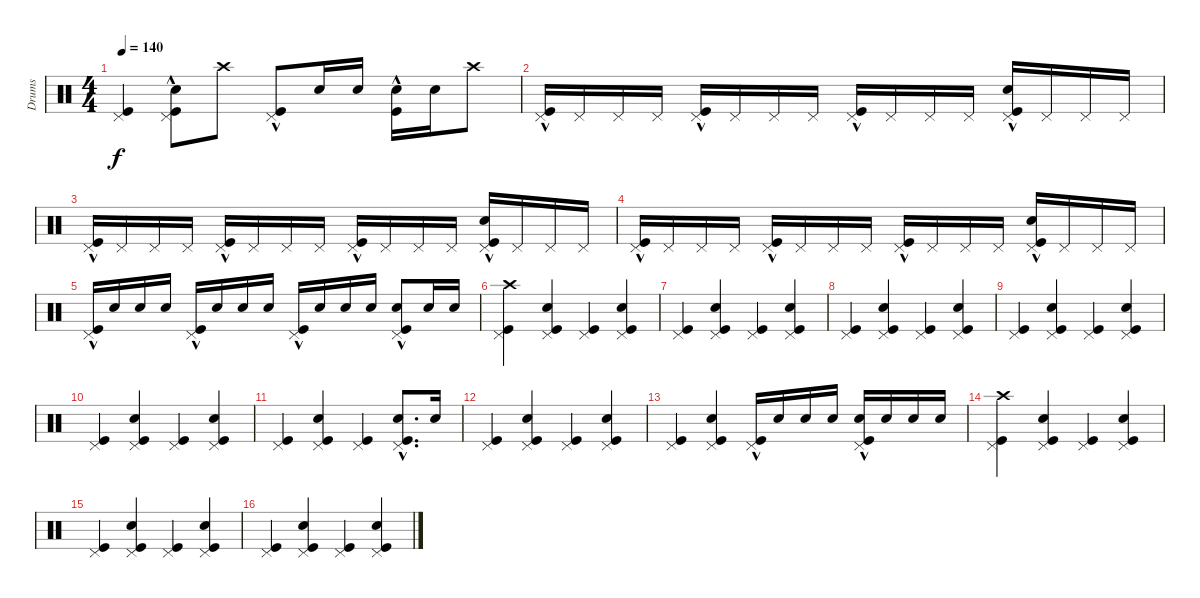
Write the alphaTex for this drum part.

\track ("Drums" "Drums") {instrument percussion}
\staff {score}
\articulation defaults
\ts (4 4)
\tempo 140
\clef neutral
\ks c
("Kick (hit)" "Pedal Hi-Hat (hit)").4{dy f} ("Kick (hit)"{hac} "Snare (hit) 2" "Pedal Hi-Hat (hit)").8 "Crash high (hit)".8 ("Kick (hit)"{hac} "Pedal Hi-Hat (hit)").8 "Snare (hit) 2".16 "Snare (hit) 2".16 ("Kick (hit)"{hac} "Snare (hit) 2").16 "Snare (hit) 2".16 "Crash high (hit)".8 |
("Kick (hit)"{hac} "Pedal Hi-Hat (hit)").16 "Pedal Hi-Hat (hit)".16 "Pedal Hi-Hat (hit)".16 "Pedal Hi-Hat (hit)".16 ("Kick (hit)"{hac} "Pedal Hi-Hat (hit)").16 "Pedal Hi-Hat (hit)".16 "Pedal Hi-Hat (hit)".16 "Pedal Hi-Hat (hit)".16 ("Kick (hit)"{hac} "Pedal Hi-Hat (hit)").16 "Pedal Hi-Hat (hit)".16 "Pedal Hi-Hat (hit)".16 "Pedal Hi-Hat (hit)".16 ("Kick (hit)"{hac} "Pedal Hi-Hat (hit)" "Snare (hit) 2").16 "Pedal Hi-Hat (hit)".16 "Pedal Hi-Hat (hit)".16 "Pedal Hi-Hat (hit)".16 |
("Kick (hit)"{hac} "Pedal Hi-Hat (hit)").16 "Pedal Hi-Hat (hit)".16 "Pedal Hi-Hat (hit)".16 "Pedal Hi-Hat (hit)".16 ("Kick (hit)"{hac} "Pedal Hi-Hat (hit)").16 "Pedal Hi-Hat (hit)".16 "Pedal Hi-Hat (hit)".16 "Pedal Hi-Hat (hit)".16 ("Kick (hit)"{hac} "Pedal Hi-Hat (hit)").16 "Pedal Hi-Hat (hit)".16 "Pedal Hi-Hat (hit)".16 "Pedal Hi-Hat (hit)".16 ("Kick (hit)"{hac} "Pedal Hi-Hat (hit)" "Snare (hit) 2").16 "Pedal Hi-Hat (hit)".16 "Pedal Hi-Hat (hit)".16 "Pedal Hi-Hat (hit)".16 |
("Kick (hit)"{hac} "Pedal Hi-Hat (hit)").16 "Pedal Hi-Hat (hit)".16 "Pedal Hi-Hat (hit)".16 "Pedal Hi-Hat (hit)".16 ("Kick (hit)"{hac} "Pedal Hi-Hat (hit)").16 "Pedal Hi-Hat (hit)".16 "Pedal Hi-Hat (hit)".16 "Pedal Hi-Hat (hit)".16 ("Kick (hit)"{hac} "Pedal Hi-Hat (hit)").16 "Pedal Hi-Hat (hit)".16 "Pedal Hi-Hat (hit)".16 "Pedal Hi-Hat (hit)".16 ("Kick (hit)"{hac} "Pedal Hi-Hat (hit)" "Snare (hit) 2").16 "Pedal Hi-Hat (hit)".16 "Pedal Hi-Hat (hit)".16 "Pedal Hi-Hat (hit)".16 |
("Kick (hit)"{hac} "Pedal Hi-Hat (hit)").16 "Snare (hit) 2".16 "Snare (hit) 2".16 "Snare (hit) 2".16 ("Kick (hit)"{hac} "Pedal Hi-Hat (hit)").16 "Snare (hit) 2".16 "Snare (hit) 2".16 "Snare (hit) 2".16 ("Kick (hit)"{hac} "Pedal Hi-Hat (hit)").16 "Snare (hit) 2".16 "Snare (hit) 2".16 "Snare (hit) 2".16 ("Kick (hit)"{hac} "Snare (hit) 2" "Pedal Hi-Hat (hit)").8 "Snare (hit) 2".16 "Snare (hit) 2".16 |
("Kick (hit)" "Crash high (hit)" "Pedal Hi-Hat (hit)").4 ("Kick (hit)" "Pedal Hi-Hat (hit)" "Snare (hit) 2").4 ("Kick (hit)" "Pedal Hi-Hat (hit)").4 ("Kick (hit)" "Pedal Hi-Hat (hit)" "Snare (hit) 2").4 |
("Kick (hit)" "Pedal Hi-Hat (hit)").4 ("Kick (hit)" "Pedal Hi-Hat (hit)" "Snare (hit) 2").4 ("Kick (hit)" "Pedal Hi-Hat (hit)").4 ("Kick (hit)" "Pedal Hi-Hat (hit)" "Snare (hit) 2").4 |
("Kick (hit)" "Pedal Hi-Hat (hit)").4 ("Kick (hit)" "Pedal Hi-Hat (hit)" "Snare (hit) 2").4 ("Kick (hit)" "Pedal Hi-Hat (hit)").4 ("Kick (hit)" "Pedal Hi-Hat (hit)" "Snare (hit) 2").4 |
("Kick (hit)" "Pedal Hi-Hat (hit)").4 ("Kick (hit)" "Pedal Hi-Hat (hit)" "Snare (hit) 2").4 ("Kick (hit)" "Pedal Hi-Hat (hit)").4 ("Kick (hit)" "Pedal Hi-Hat (hit)" "Snare (hit) 2").4 |
("Kick (hit)" "Pedal Hi-Hat (hit)").4 ("Kick (hit)" "Pedal Hi-Hat (hit)" "Snare (hit) 2").4 ("Kick (hit)" "Pedal Hi-Hat (hit)").4 ("Kick (hit)" "Pedal Hi-Hat (hit)" "Snare (hit) 2").4 |
("Kick (hit)" "Pedal Hi-Hat (hit)").4 ("Kick (hit)" "Pedal Hi-Hat (hit)" "Snare (hit) 2").4 ("Kick (hit)" "Pedal Hi-Hat (hit)").4 ("Kick (hit)"{hac} "Pedal Hi-Hat (hit)" "Snare (hit) 2").8{d} "Snare (hit) 2".16 |
("Kick (hit)" "Pedal Hi-Hat (hit)").4 ("Kick (hit)" "Pedal Hi-Hat (hit)" "Snare (hit) 2").4 ("Kick (hit)" "Pedal Hi-Hat (hit)").4 ("Kick (hit)" "Pedal Hi-Hat (hit)" "Snare (hit) 2").4 |
("Kick (hit)" "Pedal Hi-Hat (hit)").4 ("Kick (hit)" "Pedal Hi-Hat (hit)" "Snare (hit) 2").4 ("Pedal Hi-Hat (hit)" "Kick (hit)"{hac}).16 "Snare (hit) 2".16 "Snare (hit) 2".16 "Snare (hit) 2".16 ("Snare (hit) 2" "Pedal Hi-Hat (hit)" "Kick (hit)"{hac}).16 "Snare (hit) 2".16 "Snare (hit) 2".16 "Snare (hit) 2".16 |
("Kick (hit)" "Crash high (hit)" "Pedal Hi-Hat (hit)").4 ("Kick (hit)" "Pedal Hi-Hat (hit)" "Snare (hit) 2").4 ("Kick (hit)" "Pedal Hi-Hat (hit)").4 ("Kick (hit)" "Pedal Hi-Hat (hit)" "Snare (hit) 2").4 |
("Kick (hit)" "Pedal Hi-Hat (hit)").4 ("Kick (hit)" "Pedal Hi-Hat (hit)" "Snare (hit) 2").4 ("Kick (hit)" "Pedal Hi-Hat (hit)").4 ("Kick (hit)" "Pedal Hi-Hat (hit)" "Snare (hit) 2").4 |
("Kick (hit)" "Pedal Hi-Hat (hit)").4 ("Kick (hit)" "Pedal Hi-Hat (hit)" "Snare (hit) 2").4 ("Kick (hit)" "Pedal Hi-Hat (hit)").4 ("Kick (hit)" "Pedal Hi-Hat (hit)" "Snare (hit) 2").4
